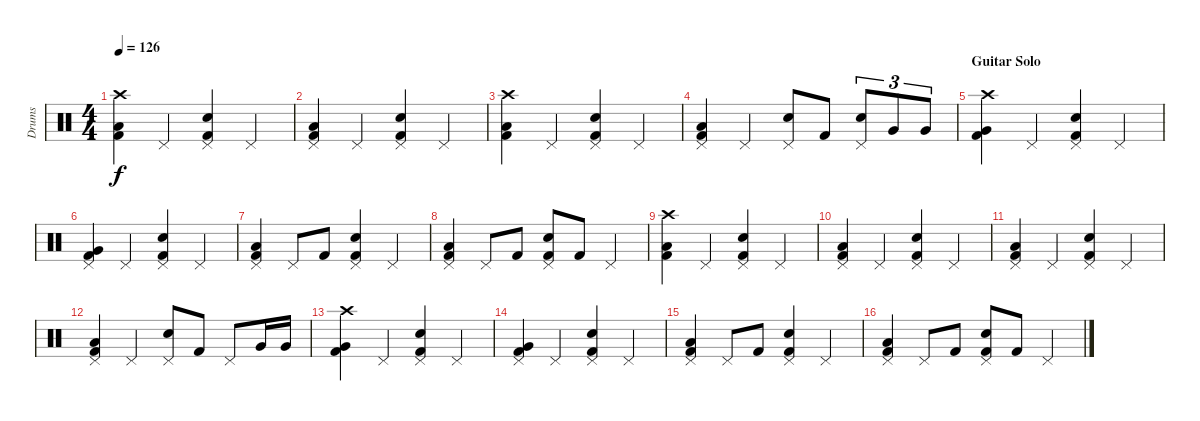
\track ("Drums" "Drums") {instrument percussion}
\staff {score}
\articulation defaults
\ts (4 4)
\tempo 126
\clef neutral
\ks c
("Crash high (hit)" "Kick (hit) 2" "Low Floor Tom (hit)").4{dy f} "Pedal Hi-Hat (hit)".4 ("Pedal Hi-Hat (hit)" "Kick (hit) 2" "Electric Snare (hit)").4 "Pedal Hi-Hat (hit)".4 |
("Pedal Hi-Hat (hit)" "Kick (hit) 2" "Low Floor Tom (hit)").4 "Pedal Hi-Hat (hit)".4 ("Pedal Hi-Hat (hit)" "Kick (hit) 2" "Electric Snare (hit)").4 "Pedal Hi-Hat (hit)".4 |
("Crash high (hit)" "Kick (hit) 2" "Low Floor Tom (hit)").4 "Pedal Hi-Hat (hit)".4 ("Pedal Hi-Hat (hit)" "Kick (hit) 2" "Electric Snare (hit)").4 "Pedal Hi-Hat (hit)".4 |
("Pedal Hi-Hat (hit)" "Kick (hit) 2" "Low Floor Tom (hit)").4 "Pedal Hi-Hat (hit)".4 ("Pedal Hi-Hat (hit)" "Electric Snare (hit)").8 "Kick (hit) 2".8 ("Pedal Hi-Hat (hit)" "Electric Snare (hit)").8{tu (3 2)} "Very Low Tom (hit)".8{tu (3 2)} "Very Low Tom (hit)".8{tu (3 2)} |
\section ("" "Guitar Solo")
("Crash high (hit)" "Kick (hit) 2" "Very Low Tom (hit)").4 "Pedal Hi-Hat (hit)".4 ("Pedal Hi-Hat (hit)" "Kick (hit) 2" "Electric Snare (hit)").4 "Pedal Hi-Hat (hit)".4 |
("Pedal Hi-Hat (hit)" "Kick (hit) 2" "Very Low Tom (hit)").4 "Pedal Hi-Hat (hit)".4 ("Pedal Hi-Hat (hit)" "Kick (hit) 2" "Electric Snare (hit)").4 "Pedal Hi-Hat (hit)".4 |
("Pedal Hi-Hat (hit)" "Kick (hit) 2" "Low Floor Tom (hit)").4 "Pedal Hi-Hat (hit)".8 "Kick (hit) 2".8 ("Pedal Hi-Hat (hit)" "Kick (hit) 2" "Electric Snare (hit)").4 "Pedal Hi-Hat (hit)".4 |
("Pedal Hi-Hat (hit)" "Kick (hit) 2" "Low Floor Tom (hit)").4 "Pedal Hi-Hat (hit)".8 "Kick (hit) 2".8 ("Pedal Hi-Hat (hit)" "Kick (hit) 2" "Electric Snare (hit)").8 "Kick (hit) 2".8 "Pedal Hi-Hat (hit)".4 |
("Crash high (hit)" "Kick (hit) 2" "Low Floor Tom (hit)").4 "Pedal Hi-Hat (hit)".4 ("Pedal Hi-Hat (hit)" "Kick (hit) 2" "Electric Snare (hit)").4 "Pedal Hi-Hat (hit)".4 |
("Pedal Hi-Hat (hit)" "Kick (hit) 2" "Low Floor Tom (hit)").4 "Pedal Hi-Hat (hit)".4 ("Pedal Hi-Hat (hit)" "Kick (hit) 2" "Electric Snare (hit)").4 "Pedal Hi-Hat (hit)".4 |
("Pedal Hi-Hat (hit)" "Kick (hit) 2" "Low Floor Tom (hit)").4 "Pedal Hi-Hat (hit)".4 ("Pedal Hi-Hat (hit)" "Kick (hit) 2" "Electric Snare (hit)").4 "Pedal Hi-Hat (hit)".4 |
("Pedal Hi-Hat (hit)" "Kick (hit) 2" "Low Floor Tom (hit)").4 "Pedal Hi-Hat (hit)".4 ("Pedal Hi-Hat (hit)" "Electric Snare (hit)").8 "Kick (hit) 2".8 "Pedal Hi-Hat (hit)".8 "Very Low Tom (hit)".16 "Very Low Tom (hit)".16 |
("Crash high (hit)" "Kick (hit) 2" "Very Low Tom (hit)").4 "Pedal Hi-Hat (hit)".4 ("Pedal Hi-Hat (hit)" "Kick (hit) 2" "Electric Snare (hit)").4 "Pedal Hi-Hat (hit)".4 |
("Pedal Hi-Hat (hit)" "Kick (hit) 2" "Very Low Tom (hit)").4 "Pedal Hi-Hat (hit)".4 ("Pedal Hi-Hat (hit)" "Kick (hit) 2" "Electric Snare (hit)").4 "Pedal Hi-Hat (hit)".4 |
("Pedal Hi-Hat (hit)" "Kick (hit) 2" "Low Floor Tom (hit)").4 "Pedal Hi-Hat (hit)".8 "Kick (hit) 2".8 ("Pedal Hi-Hat (hit)" "Kick (hit) 2" "Electric Snare (hit)").4 "Pedal Hi-Hat (hit)".4 |
("Pedal Hi-Hat (hit)" "Kick (hit) 2" "Low Floor Tom (hit)").4 "Pedal Hi-Hat (hit)".8 "Kick (hit) 2".8 ("Pedal Hi-Hat (hit)" "Kick (hit) 2" "Electric Snare (hit)").8 "Kick (hit) 2".8 "Pedal Hi-Hat (hit)".4
